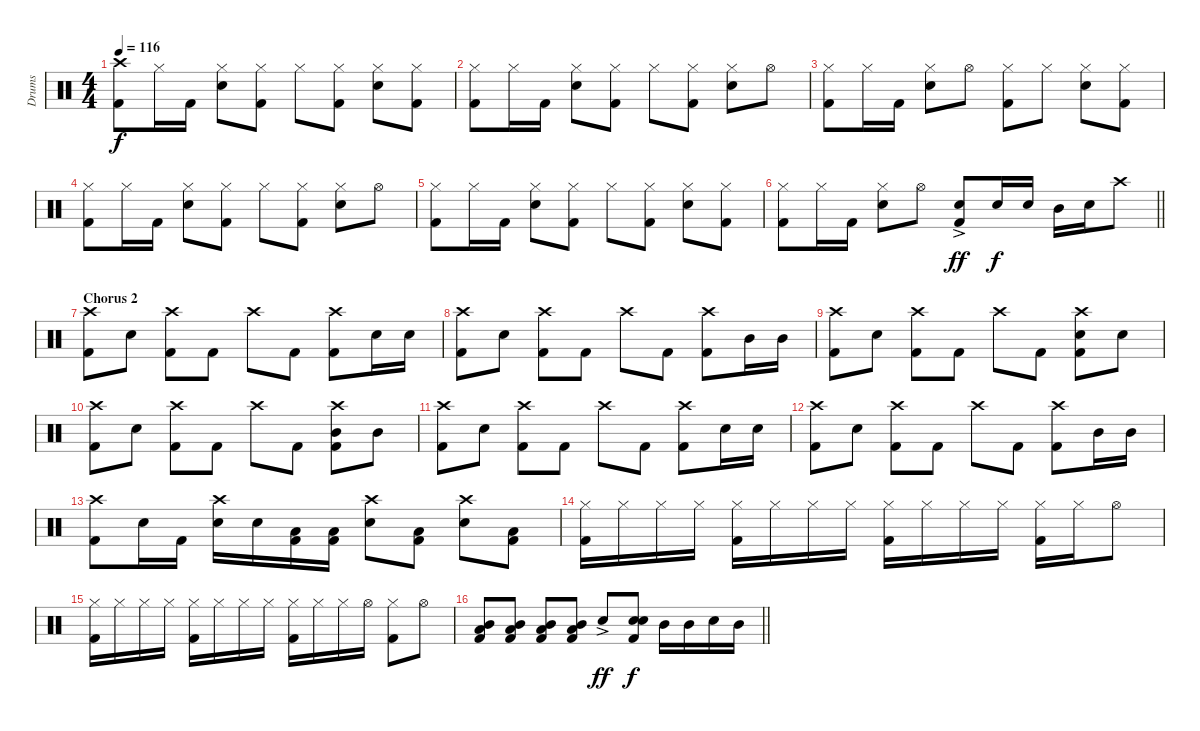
\track ("Drums" "Drums") {instrument percussion}
\staff {score}
\articulation defaults
\ts (4 4)
\tempo 116
\clef neutral
\ks c
("Crash high (hit)" "Kick (hit) 2").8{dy f} "Hi-Hat (closed)".16 "Kick (hit) 2".16 ("Hi-Hat (closed)" "Snare (hit) 2").8 ("Hi-Hat (closed)" "Kick (hit) 2").8 "Hi-Hat (closed)".8 ("Hi-Hat (closed)" "Kick (hit) 2").8 ("Hi-Hat (closed)" "Snare (hit) 2").8 ("Hi-Hat (closed)" "Kick (hit) 2").8 |
("Hi-Hat (closed)" "Kick (hit) 2").8 "Hi-Hat (closed)".16 "Kick (hit) 2".16 ("Hi-Hat (closed)" "Snare (hit) 2").8 ("Hi-Hat (closed)" "Kick (hit) 2").8 "Hi-Hat (closed)".8 ("Hi-Hat (closed)" "Kick (hit) 2").8 ("Hi-Hat (closed)" "Snare (hit) 2").8 "Hi-Hat (open)".8 |
("Hi-Hat (closed)" "Kick (hit) 2").8 "Hi-Hat (closed)".16 "Kick (hit) 2".16 ("Hi-Hat (closed)" "Snare (hit) 2").8 "Hi-Hat (open)".8 ("Hi-Hat (closed)" "Kick (hit) 2").8 "Hi-Hat (closed)".8 ("Hi-Hat (closed)" "Snare (hit) 2").8 ("Hi-Hat (closed)" "Kick (hit) 2").8 |
("Hi-Hat (closed)" "Kick (hit) 2").8 "Hi-Hat (closed)".16 "Kick (hit) 2".16 ("Hi-Hat (closed)" "Snare (hit) 2").8 ("Hi-Hat (closed)" "Kick (hit) 2").8 "Hi-Hat (closed)".8 ("Hi-Hat (closed)" "Kick (hit) 2").8 ("Hi-Hat (closed)" "Snare (hit) 2").8 "Hi-Hat (open)".8 |
("Hi-Hat (closed)" "Kick (hit) 2").8 "Hi-Hat (closed)".16 "Kick (hit) 2".16 ("Hi-Hat (closed)" "Snare (hit) 2").8 ("Hi-Hat (closed)" "Kick (hit) 2").8 "Hi-Hat (closed)".8 ("Hi-Hat (closed)" "Kick (hit) 2").8 ("Hi-Hat (closed)" "Snare (hit) 2").8 ("Hi-Hat (closed)" "Kick (hit) 2").8 |
\barLineRight lightlight
("Hi-Hat (closed)" "Kick (hit) 2").8 "Hi-Hat (closed)".16 "Kick (hit) 2".16 ("Hi-Hat (closed)" "Snare (hit) 2").8 "Hi-Hat (open)".8 ("Snare (hit) 2"{ac} "Kick (hit) 2").8{dy ff} "Snare (hit) 2".16{dy f} "Snare (hit) 2".16 "Mid Tom (hit)".16 "Snare (hit) 2".16 "Crash high (hit)".8 |
\section ("" "Chorus 2")
("Crash high (hit)" "Kick (hit) 2").8 "Snare (hit) 2".8 ("Crash high (hit)" "Kick (hit) 2").8 "Kick (hit) 2".8 "Crash high (hit)".8 "Kick (hit) 2".8 ("Crash high (hit)" "Kick (hit) 2").8 "Snare (hit) 2".16 "Snare (hit) 2".16 |
("Crash high (hit)" "Kick (hit) 2").8 "Snare (hit) 2".8 ("Crash high (hit)" "Kick (hit) 2").8 "Kick (hit) 2".8 "Crash high (hit)".8 "Kick (hit) 2".8 ("Crash high (hit)" "Kick (hit) 2").8 "Mid Tom (hit)".16 "Mid Tom (hit)".16 |
("Crash high (hit)" "Kick (hit) 2").8 "Snare (hit) 2".8 ("Crash high (hit)" "Kick (hit) 2").8 "Kick (hit) 2".8 "Crash high (hit)".8 "Kick (hit) 2".8 ("Crash high (hit)" "Snare (hit) 2" "Kick (hit) 2").8 "Snare (hit) 2".8 |
("Crash high (hit)" "Kick (hit) 2").8 "Snare (hit) 2".8 ("Crash high (hit)" "Kick (hit) 2").8 "Kick (hit) 2".8 "Crash high (hit)".8 "Kick (hit) 2".8 ("Crash high (hit)" "Mid Tom (hit)" "Kick (hit) 2").8 "Mid Tom (hit)".8 |
("Crash high (hit)" "Kick (hit) 2").8 "Snare (hit) 2".8 ("Crash high (hit)" "Kick (hit) 2").8 "Kick (hit) 2".8 "Crash high (hit)".8 "Kick (hit) 2".8 ("Crash high (hit)" "Kick (hit) 2").8 "Snare (hit) 2".16 "Snare (hit) 2".16 |
("Crash high (hit)" "Kick (hit) 2").8 "Snare (hit) 2".8 ("Crash high (hit)" "Kick (hit) 2").8 "Kick (hit) 2".8 "Crash high (hit)".8 "Kick (hit) 2".8 ("Crash high (hit)" "Kick (hit) 2").8 "Mid Tom (hit)".16 "Mid Tom (hit)".16 |
("Crash high (hit)" "Kick (hit) 2").8 "Snare (hit) 2".16 "Kick (hit) 2".16 ("Crash high (hit)" "Snare (hit) 2").16 "Snare (hit) 2".16 ("Low Floor Tom (hit)" "Kick (hit) 2").16 ("Low Floor Tom (hit)" "Kick (hit) 2").16 ("Crash high (hit)" "Snare (hit) 2").8 ("Low Floor Tom (hit)" "Kick (hit) 2").8 ("Crash high (hit)" "Snare (hit) 2").8 ("Low Floor Tom (hit)" "Kick (hit) 2").8 |
("Hi-Hat (closed)" "Kick (hit) 2").16 "Hi-Hat (closed)".16 "Hi-Hat (closed)".16 "Hi-Hat (closed)".16 ("Hi-Hat (closed)" "Kick (hit) 2").16 "Hi-Hat (closed)".16 "Hi-Hat (closed)".16 "Hi-Hat (closed)".16 ("Hi-Hat (closed)" "Kick (hit) 2").16 "Hi-Hat (closed)".16 "Hi-Hat (closed)".16 "Hi-Hat (closed)".16 ("Hi-Hat (closed)" "Kick (hit) 2").16 "Hi-Hat (closed)".16 "Hi-Hat (open)".8 |
("Hi-Hat (closed)" "Kick (hit) 2").16 "Hi-Hat (closed)".16 "Hi-Hat (closed)".16 "Hi-Hat (closed)".16 ("Hi-Hat (closed)" "Kick (hit) 2").16 "Hi-Hat (closed)".16 "Hi-Hat (closed)".16 "Hi-Hat (closed)".16 ("Hi-Hat (closed)" "Kick (hit) 2").16 "Hi-Hat (closed)".16 "Hi-Hat (closed)".16 "Hi-Hat (open)".16 ("Hi-Hat (closed)" "Kick (hit) 2").8 "Hi-Hat (open)".8 |
\barLineRight lightlight
("Mid Tom (hit)" "Low Floor Tom (hit)" "Kick (hit) 2").8 ("Mid Tom (hit)" "Low Floor Tom (hit)" "Kick (hit) 2").8 ("Mid Tom (hit)" "Low Floor Tom (hit)" "Kick (hit) 2").8 ("Mid Tom (hit)" "Low Floor Tom (hit)" "Kick (hit) 2").8 "Snare (hit) 2"{ac}.8{dy ff} ("Snare (hit) 2" "Snare (hit) 2" "Kick (hit) 2").8{dy f} "Mid Tom (hit)".16 "Mid Tom (hit)".16 "Snare (hit) 2".16 "Mid Tom (hit)".16
